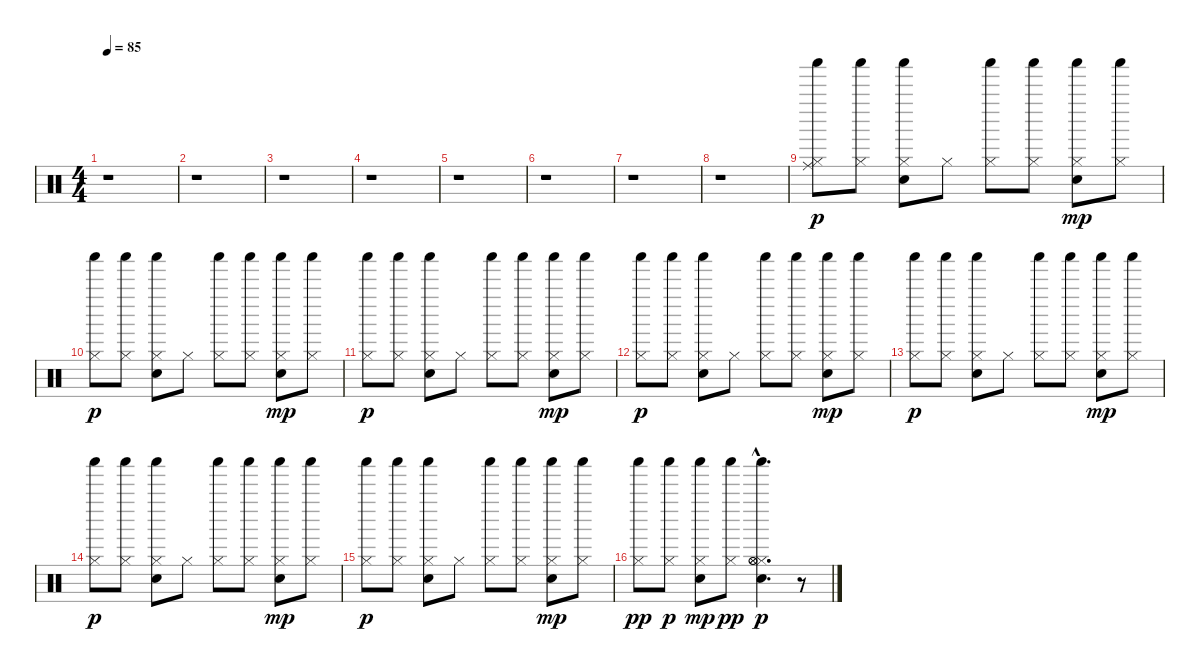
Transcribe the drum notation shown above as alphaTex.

\track "" {instrument percussion}
\staff {score}
\articulation defaults
\ts (4 4)
\tempo 85
\clef neutral
\ks c
r.1{dy p} |
r.1 |
r.1 |
r.1 |
r.1 |
r.1 |
r.1 |
r.1 |
("Ride (middle)" "Hi-Hat (closed)" "Shaker (hit)").8 ("Hi-Hat (closed)" "Shaker (hit)").8 ("Hi-Hat (closed)" "Shaker (hit)" "Electric Snare (hit)").8 "Hi-Hat (closed)".8 ("Hi-Hat (closed)" "Shaker (hit)").8 ("Hi-Hat (closed)" "Shaker (hit)").8 ("Hi-Hat (closed)" "Shaker (hit)" "Electric Snare (hit)").8{dy mp} ("Hi-Hat (closed)" "Shaker (hit)").8 |
("Shaker (hit)" "Hi-Hat (closed)").8{dy p} ("Shaker (hit)" "Hi-Hat (closed)").8 ("Shaker (hit)" "Hi-Hat (closed)" "Electric Snare (hit)").8 "Hi-Hat (closed)".8 ("Shaker (hit)" "Hi-Hat (closed)").8 ("Shaker (hit)" "Hi-Hat (closed)").8 ("Shaker (hit)" "Hi-Hat (closed)" "Electric Snare (hit)").8{dy mp} ("Shaker (hit)" "Hi-Hat (closed)").8 |
("Shaker (hit)" "Hi-Hat (closed)").8{dy p} ("Shaker (hit)" "Hi-Hat (closed)").8 ("Shaker (hit)" "Hi-Hat (closed)" "Electric Snare (hit)").8 "Hi-Hat (closed)".8 ("Shaker (hit)" "Hi-Hat (closed)").8 ("Shaker (hit)" "Hi-Hat (closed)").8 ("Shaker (hit)" "Hi-Hat (closed)" "Electric Snare (hit)").8{dy mp} ("Shaker (hit)" "Hi-Hat (closed)").8 |
("Hi-Hat (closed)" "Shaker (hit)").8{dy p} ("Hi-Hat (closed)" "Shaker (hit)").8 ("Hi-Hat (closed)" "Shaker (hit)" "Electric Snare (hit)").8 "Hi-Hat (closed)".8 ("Hi-Hat (closed)" "Shaker (hit)").8 ("Hi-Hat (closed)" "Shaker (hit)").8 ("Hi-Hat (closed)" "Shaker (hit)" "Electric Snare (hit)").8{dy mp} ("Hi-Hat (closed)" "Shaker (hit)").8 |
("Shaker (hit)" "Hi-Hat (closed)").8{dy p} ("Shaker (hit)" "Hi-Hat (closed)").8 ("Shaker (hit)" "Hi-Hat (closed)" "Electric Snare (hit)").8 "Hi-Hat (closed)".8 ("Shaker (hit)" "Hi-Hat (closed)").8 ("Shaker (hit)" "Hi-Hat (closed)").8 ("Shaker (hit)" "Hi-Hat (closed)" "Electric Snare (hit)").8{dy mp} ("Shaker (hit)" "Hi-Hat (closed)").8 |
("Hi-Hat (closed)" "Shaker (hit)").8{dy p} ("Hi-Hat (closed)" "Shaker (hit)").8 ("Hi-Hat (closed)" "Shaker (hit)" "Electric Snare (hit)").8 "Hi-Hat (closed)".8 ("Hi-Hat (closed)" "Shaker (hit)").8 ("Hi-Hat (closed)" "Shaker (hit)").8 ("Hi-Hat (closed)" "Shaker (hit)" "Electric Snare (hit)").8{dy mp} ("Hi-Hat (closed)" "Shaker (hit)").8 |
("Hi-Hat (closed)" "Shaker (hit)").8{dy p} ("Hi-Hat (closed)" "Shaker (hit)").8 ("Hi-Hat (closed)" "Shaker (hit)" "Electric Snare (hit)").8 "Hi-Hat (closed)".8 ("Hi-Hat (closed)" "Shaker (hit)").8 ("Hi-Hat (closed)" "Shaker (hit)").8 ("Hi-Hat (closed)" "Shaker (hit)" "Electric Snare (hit)").8{dy mp} ("Hi-Hat (closed)" "Shaker (hit)").8 |
("Hi-Hat (closed)" "Shaker (hit)").8{dy pp} ("Hi-Hat (closed)" "Shaker (hit)").8{dy p} ("Hi-Hat (closed)" "Shaker (hit)" "Electric Snare (hit)").8{dy mp} ("Hi-Hat (closed)" "Shaker (hit)").8{dy pp} ("Hi-Hat (closed)" "Shaker (hit)" "Electric Snare (hit)" "Hi-Hat (open)"{hac} "Hi-Hat (open)"{hac}).4{d dy p} r.8
